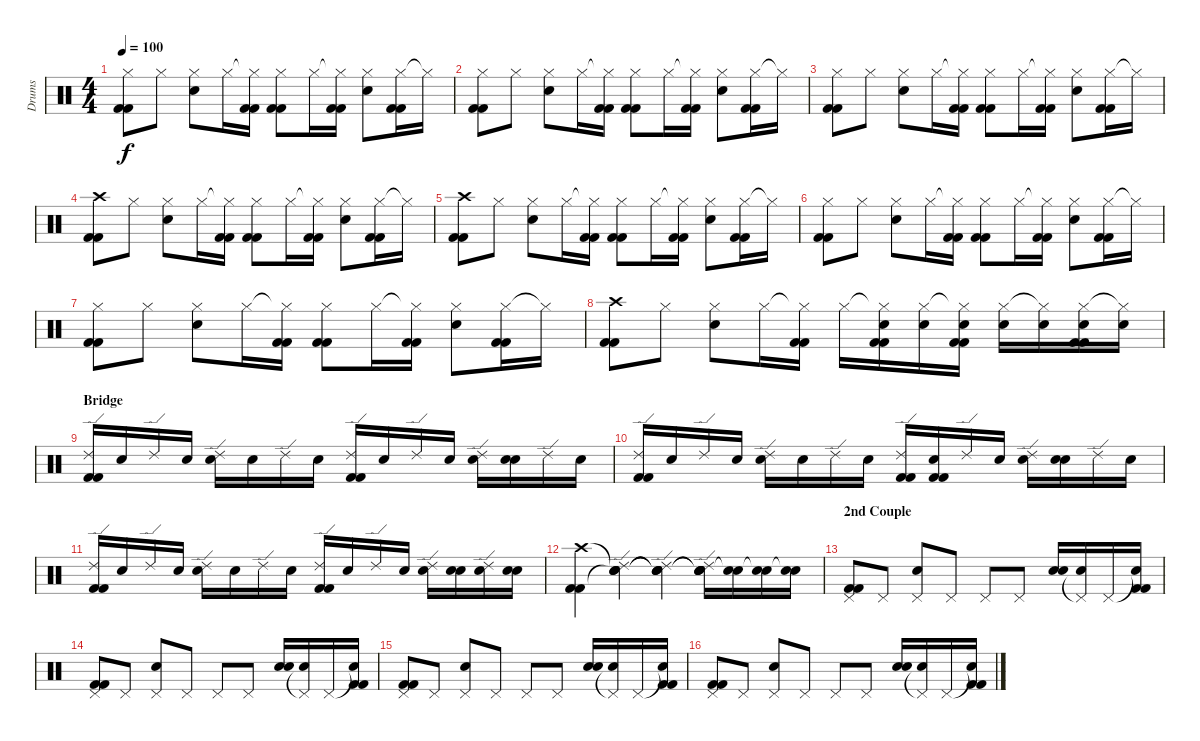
\track ("Drums" "Drums") {instrument percussion}
\staff {score}
\articulation defaults
\ts (4 4)
\tempo 100
\clef neutral
\ks c
("Hi-Hat (closed)" "Kick (hit) 2" "Kick (hit) 2").8{dy f} "Hi-Hat (closed)".8 ("Hi-Hat (closed)" "Electric Snare (hit)").8 "Hi-Hat (closed)".16 ("Hi-Hat (closed)"{t} "Kick (hit) 2" "Kick (hit) 2").16 ("Hi-Hat (closed)" "Kick (hit) 2" "Kick (hit) 2").8 "Hi-Hat (closed)".16 ("Hi-Hat (closed)"{t} "Kick (hit) 2" "Kick (hit) 2").16 ("Hi-Hat (closed)" "Electric Snare (hit)").8 ("Hi-Hat (closed)" "Kick (hit) 2" "Kick (hit) 2").16 "Hi-Hat (closed)"{t}.16 |
("Hi-Hat (closed)" "Kick (hit) 2" "Kick (hit) 2").8 "Hi-Hat (closed)".8 ("Hi-Hat (closed)" "Electric Snare (hit)").8 "Hi-Hat (closed)".16 ("Hi-Hat (closed)"{t} "Kick (hit) 2" "Kick (hit) 2").16 ("Hi-Hat (closed)" "Kick (hit) 2" "Kick (hit) 2").8 "Hi-Hat (closed)".16 ("Hi-Hat (closed)"{t} "Kick (hit) 2" "Kick (hit) 2").16 ("Hi-Hat (closed)" "Electric Snare (hit)").8 ("Hi-Hat (closed)" "Kick (hit) 2" "Kick (hit) 2").16 "Hi-Hat (closed)"{t}.16 |
("Hi-Hat (closed)" "Kick (hit) 2" "Kick (hit) 2").8 "Hi-Hat (closed)".8 ("Hi-Hat (closed)" "Electric Snare (hit)").8 "Hi-Hat (closed)".16 ("Hi-Hat (closed)"{t} "Kick (hit) 2" "Kick (hit) 2").16 ("Hi-Hat (closed)" "Kick (hit) 2" "Kick (hit) 2").8 "Hi-Hat (closed)".16 ("Hi-Hat (closed)"{t} "Kick (hit) 2" "Kick (hit) 2").16 ("Hi-Hat (closed)" "Electric Snare (hit)").8 ("Hi-Hat (closed)" "Kick (hit) 2" "Kick (hit) 2").16 "Hi-Hat (closed)"{t}.16 |
("Crash high (hit)" "Kick (hit) 2" "Kick (hit) 2").8 "Hi-Hat (closed)".8 ("Hi-Hat (closed)" "Electric Snare (hit)").8 "Hi-Hat (closed)".16 ("Hi-Hat (closed)"{t} "Kick (hit) 2" "Kick (hit) 2").16 ("Hi-Hat (closed)" "Kick (hit) 2" "Kick (hit) 2").8 "Hi-Hat (closed)".16 ("Hi-Hat (closed)"{t} "Kick (hit) 2" "Kick (hit) 2").16 ("Hi-Hat (closed)" "Electric Snare (hit)").8 ("Hi-Hat (closed)" "Kick (hit) 2" "Kick (hit) 2").16 "Hi-Hat (closed)"{t}.16 |
("Crash high (hit)" "Kick (hit) 2" "Kick (hit) 2").8 "Hi-Hat (closed)".8 ("Hi-Hat (closed)" "Electric Snare (hit)").8 "Hi-Hat (closed)".16 ("Hi-Hat (closed)"{t} "Kick (hit) 2" "Kick (hit) 2").16 ("Hi-Hat (closed)" "Kick (hit) 2" "Kick (hit) 2").8 "Hi-Hat (closed)".16 ("Hi-Hat (closed)"{t} "Kick (hit) 2" "Kick (hit) 2").16 ("Hi-Hat (closed)" "Electric Snare (hit)").8 ("Hi-Hat (closed)" "Kick (hit) 2" "Kick (hit) 2").16 "Hi-Hat (closed)"{t}.16 |
("Hi-Hat (closed)" "Kick (hit) 2" "Kick (hit) 2").8 "Hi-Hat (closed)".8 ("Hi-Hat (closed)" "Electric Snare (hit)").8 "Hi-Hat (closed)".16 ("Hi-Hat (closed)"{t} "Kick (hit) 2" "Kick (hit) 2").16 ("Hi-Hat (closed)" "Kick (hit) 2" "Kick (hit) 2").8 "Hi-Hat (closed)".16 ("Hi-Hat (closed)"{t} "Kick (hit) 2" "Kick (hit) 2").16 ("Hi-Hat (closed)" "Electric Snare (hit)").8 ("Hi-Hat (closed)" "Kick (hit) 2" "Kick (hit) 2").16 "Hi-Hat (closed)"{t}.16 |
("Hi-Hat (closed)" "Kick (hit) 2" "Kick (hit) 2").8 "Hi-Hat (closed)".8 ("Hi-Hat (closed)" "Electric Snare (hit)").8 "Hi-Hat (closed)".16 ("Hi-Hat (closed)"{t} "Kick (hit) 2" "Kick (hit) 2").16 ("Hi-Hat (closed)" "Kick (hit) 2" "Kick (hit) 2").8 "Hi-Hat (closed)".16 ("Hi-Hat (closed)"{t} "Kick (hit) 2" "Kick (hit) 2").16 ("Hi-Hat (closed)" "Electric Snare (hit)").8 ("Hi-Hat (closed)" "Kick (hit) 2" "Kick (hit) 2").16 "Hi-Hat (closed)"{t}.16 |
("Crash high (hit)" "Kick (hit) 2" "Kick (hit) 2").8 "Hi-Hat (closed)".8 ("Hi-Hat (closed)" "Electric Snare (hit)").8 "Hi-Hat (closed)".16 ("Hi-Hat (closed)"{t} "Kick (hit) 2" "Kick (hit) 2").16 "Hi-Hat (closed)".16 ("Hi-Hat (closed)"{t} "Electric Snare (hit)" "Kick (hit) 2" "Kick (hit) 2").16 ("Hi-Hat (closed)" "Electric Snare (hit)").16 ("Hi-Hat (closed)"{t} "Electric Snare (hit)" "Kick (hit) 2" "Kick (hit) 2").16 ("Hi-Hat (closed)" "Electric Snare (hit)").16 ("Hi-Hat (closed)"{t} "Electric Snare (hit)").16 ("Hi-Hat (closed)" "Electric Snare (hit)" "Kick (hit) 2" "Kick (hit) 2").16 ("Hi-Hat (closed)"{t} "Electric Snare (hit)").16 |
\section ("" "Bridge")
("Ride (edge) 2" "Kick (hit) 2" "Kick (hit) 2").16 "Snare (hit)"{x}.16 "Ride (edge) 2"{x}.16 "Snare (hit)"{x}.16 ("Ride (edge) 2" "Electric Snare (hit)").16 "Snare (hit)"{x}.16 "Ride (edge) 2"{x}.16 "Snare (hit)"{x}.16 ("Ride (edge) 2" "Kick (hit) 2" "Kick (hit) 2").16 "Snare (hit)"{x}.16 "Ride (edge) 2"{x}.16 "Snare (hit)"{x}.16 ("Ride (edge) 2" "Electric Snare (hit)").16 ("Snare (hit)"{x} "Electric Snare (hit)").16 "Ride (edge) 2"{x}.16 "Snare (hit)"{x}.16 |
("Ride (edge) 2" "Kick (hit) 2" "Kick (hit) 2").16 "Snare (hit)"{x}.16 "Ride (edge) 2"{x}.16 "Snare (hit)"{x}.16 ("Ride (edge) 2" "Electric Snare (hit)").16 "Snare (hit)"{x}.16 "Ride (edge) 2"{x}.16 "Snare (hit)"{x}.16 ("Ride (edge) 2" "Kick (hit) 2" "Kick (hit) 2").16 ("Snare (hit)"{x} "Kick (hit) 2" "Kick (hit) 2").16 "Ride (edge) 2"{x}.16 "Snare (hit)"{x}.16 ("Ride (edge) 2" "Electric Snare (hit)").16 ("Snare (hit)"{x} "Electric Snare (hit)").16 "Ride (edge) 2"{x}.16 "Snare (hit)"{x}.16 |
("Ride (edge) 2" "Kick (hit) 2" "Kick (hit) 2").16 "Snare (hit)"{x}.16 "Ride (edge) 2"{x}.16 "Snare (hit)"{x}.16 ("Ride (edge) 2" "Electric Snare (hit)").16 "Snare (hit)"{x}.16 "Ride (edge) 2"{x}.16 "Snare (hit)"{x}.16 ("Ride (edge) 2" "Kick (hit) 2" "Kick (hit) 2").16 "Snare (hit)"{x}.16 "Ride (edge) 2"{x}.16 "Snare (hit)"{x}.16 ("Ride (edge) 2" "Electric Snare (hit)").16 ("Snare (hit)"{x} "Electric Snare (hit)").16 ("Ride (edge) 2"{x} "Electric Snare (hit)").16 ("Snare (hit)"{x} "Electric Snare (hit)").16 |
("Crash high (hit)" "Kick (hit) 2" "Kick (hit) 2").4 ("Snare (hit)"{t} "Ride (edge) 2" "Snare (hit)"{t} "Snare (hit)").4 ("Snare (hit)"{t} "Ride (edge) 2" "Snare (hit)"{t} "Snare (hit)"{t}).4 ("Snare (hit)"{t} "Electric Snare (hit)" "Ride (edge) 2" "Snare (hit)"{t} "Snare (hit)").16 ("Electric Snare (hit)" "Snare (hit)"{t}).16 ("Electric Snare (hit)" "Snare (hit)"{t}).16 ("Electric Snare (hit)" "Snare (hit)"{t}).16 |
\section ("" "2nd Couple")
("Pedal Hi-Hat (hit)" "Kick (hit) 2" "Kick (hit) 2").8 "Pedal Hi-Hat (hit)".8 ("Pedal Hi-Hat (hit)" "Electric Snare (hit)").8 "Pedal Hi-Hat (hit)".8 "Pedal Hi-Hat (hit)".8 "Pedal Hi-Hat (hit)".8 ("Electric Snare (hit)" "Electric Snare (hit)").16 ("Pedal Hi-Hat (hit)"{t} "Electric Snare (hit)").16 "Pedal Hi-Hat (hit)".16 ("Snare (hit)"{t} "Kick (hit) 2" "Kick (hit) 2").16 |
("Pedal Hi-Hat (hit)" "Kick (hit) 2" "Kick (hit) 2").8 "Pedal Hi-Hat (hit)".8 ("Pedal Hi-Hat (hit)" "Electric Snare (hit)").8 "Pedal Hi-Hat (hit)".8 "Pedal Hi-Hat (hit)".8 "Pedal Hi-Hat (hit)".8 ("Electric Snare (hit)" "Electric Snare (hit)").16 ("Pedal Hi-Hat (hit)"{t} "Electric Snare (hit)").16 "Pedal Hi-Hat (hit)".16 ("Snare (hit)"{t} "Kick (hit) 2" "Kick (hit) 2").16 |
("Pedal Hi-Hat (hit)" "Kick (hit) 2" "Kick (hit) 2").8 "Pedal Hi-Hat (hit)".8 ("Pedal Hi-Hat (hit)" "Electric Snare (hit)").8 "Pedal Hi-Hat (hit)".8 "Pedal Hi-Hat (hit)".8 "Pedal Hi-Hat (hit)".8 ("Electric Snare (hit)" "Electric Snare (hit)").16 ("Pedal Hi-Hat (hit)"{t} "Electric Snare (hit)").16 "Pedal Hi-Hat (hit)".16 ("Snare (hit)"{t} "Kick (hit) 2" "Kick (hit) 2").16 |
("Pedal Hi-Hat (hit)" "Kick (hit) 2" "Kick (hit) 2").8 "Pedal Hi-Hat (hit)".8 ("Pedal Hi-Hat (hit)" "Electric Snare (hit)").8 "Pedal Hi-Hat (hit)".8 "Pedal Hi-Hat (hit)".8 "Pedal Hi-Hat (hit)".8 ("Electric Snare (hit)" "Electric Snare (hit)").16 ("Pedal Hi-Hat (hit)"{t} "Electric Snare (hit)").16 "Pedal Hi-Hat (hit)".16 ("Snare (hit)"{t} "Kick (hit) 2" "Kick (hit) 2").16
